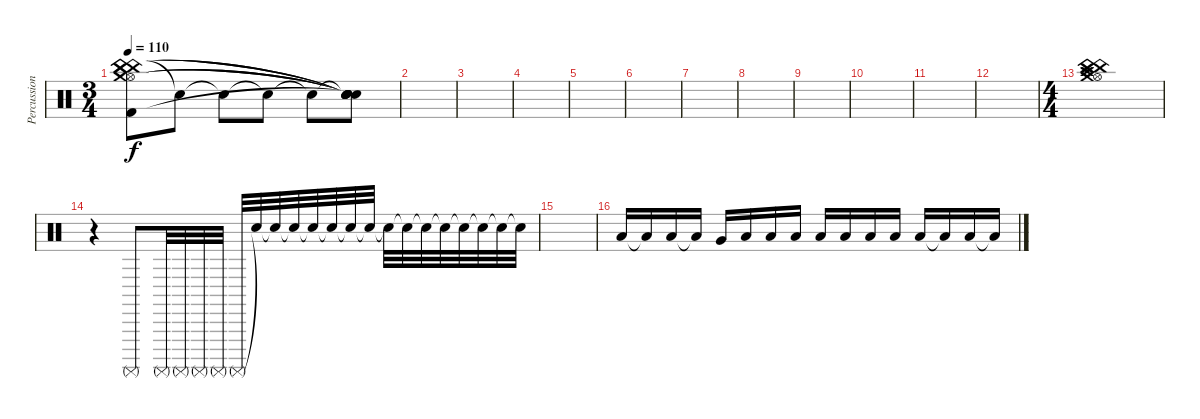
\track ("Percussion" "Percussion") {instrument percussion}
\staff {score}
\articulation defaults
\ts (3 4)
\tempo 110
\clef neutral
\ks c
("China (hit)" "Kick (hit) 2" "China (hit)" "China (hit)" "Hi-Hat (open)" "Crash medium (hit)").8{dy f} "Snare (hit)"{t}.8 "Snare (hit)"{t}.8 "Snare (hit)"{t}.8 "Snare (hit)"{t}.8 ("Snare (hit)"{t} "Snare (hit)"{t} "Snare (hit)"{t} "Snare (hit)"{t} "Snare (hit)"{t} "Snare (hit)"{t}).8 |
|
|
|
|
|
|
|
|
|
|
|
\ts (4 4)
("Crash high (hit)" "China (hit)" "China (hit)" "China (hit)" "Hi-Hat (open)" "Crash medium (hit)").1 |
r.4 "Surdo (mute)".8 "Surdo (mute)".32 "Surdo (mute)".32 "Surdo (mute)".32 "Surdo (mute)".32 "Surdo (mute)".32 "Snare (hit)"{t}.32 "Snare (hit)"{t}.32 "Snare (hit)"{t}.32 "Snare (hit)"{t}.32 "Snare (hit)"{t}.32 "Snare (hit)"{t}.32 "Snare (hit)"{t}.32 "Snare (hit)"{t}.32 "Snare (hit)"{t}.32 "Snare (hit)"{t}.32 "Snare (hit)"{t}.32 "Snare (hit)"{t}.32 "Snare (hit)"{t}.32 "Snare (hit)"{t}.32 "Snare (hit)"{t}.32 |
|
"Low Floor Tom (hit)".16 "Low Floor Tom (hit)"{t}.16 "Low Floor Tom (hit)".16 "Low Floor Tom (hit)"{t}.16 "Very Low Tom (hit)".16 "Low Floor Tom (hit)".16 "Low Floor Tom (hit)".16 "Low Floor Tom (hit)".16 "Low Floor Tom (hit)".16 "Low Floor Tom (hit)".16 "Low Floor Tom (hit)".16 "Low Floor Tom (hit)".16 "Low Floor Tom (hit)".16 "Low Floor Tom (hit)"{t}.16 "Low Floor Tom (hit)".16 "Low Floor Tom (hit)"{t}.16
